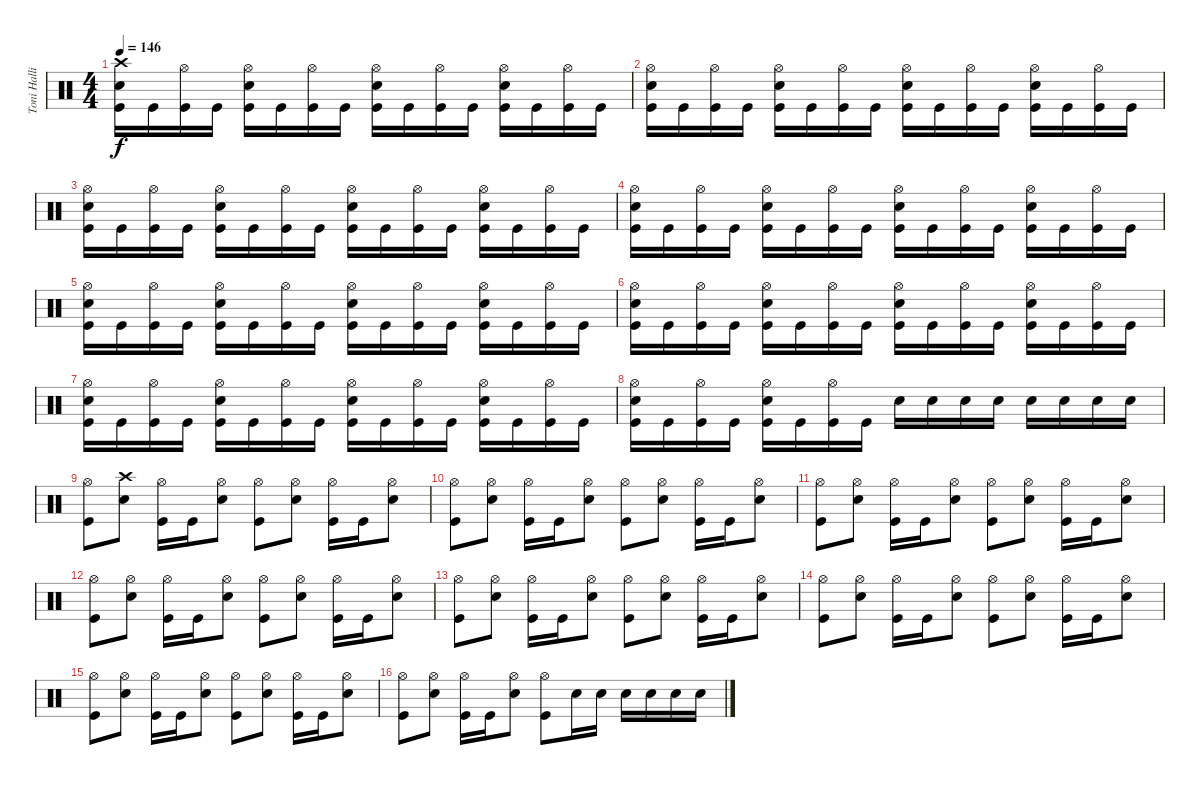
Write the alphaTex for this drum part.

\track ("Toni Hallio" "Toni Halli") {instrument percussion}
\staff {score}
\articulation defaults
\ts (4 4)
\tempo 146
\clef neutral
\ks c
("Crash high (hit)" "Snare (hit) 2" "Kick (hit)").16{dy f} "Kick (hit)".16 ("Hi-Hat (open)" "Kick (hit)").16 "Kick (hit)".16 ("Hi-Hat (open)" "Snare (hit) 2" "Kick (hit)").16 "Kick (hit)".16 ("Hi-Hat (open)" "Kick (hit)").16 "Kick (hit)".16 ("Hi-Hat (open)" "Snare (hit) 2" "Kick (hit)").16 "Kick (hit)".16 ("Hi-Hat (open)" "Kick (hit)").16 "Kick (hit)".16 ("Hi-Hat (open)" "Snare (hit) 2" "Kick (hit)").16 "Kick (hit)".16 ("Hi-Hat (open)" "Kick (hit)").16 "Kick (hit)".16 |
("Hi-Hat (open)" "Snare (hit) 2" "Kick (hit)").16 "Kick (hit)".16 ("Hi-Hat (open)" "Kick (hit)").16 "Kick (hit)".16 ("Hi-Hat (open)" "Snare (hit) 2" "Kick (hit)").16 "Kick (hit)".16 ("Hi-Hat (open)" "Kick (hit)").16 "Kick (hit)".16 ("Hi-Hat (open)" "Snare (hit) 2" "Kick (hit)").16 "Kick (hit)".16 ("Hi-Hat (open)" "Kick (hit)").16 "Kick (hit)".16 ("Hi-Hat (open)" "Snare (hit) 2" "Kick (hit)").16 "Kick (hit)".16 ("Hi-Hat (open)" "Kick (hit)").16 "Kick (hit)".16 |
("Hi-Hat (open)" "Snare (hit) 2" "Kick (hit)").16 "Kick (hit)".16 ("Hi-Hat (open)" "Kick (hit)").16 "Kick (hit)".16 ("Hi-Hat (open)" "Snare (hit) 2" "Kick (hit)").16 "Kick (hit)".16 ("Hi-Hat (open)" "Kick (hit)").16 "Kick (hit)".16 ("Hi-Hat (open)" "Snare (hit) 2" "Kick (hit)").16 "Kick (hit)".16 ("Hi-Hat (open)" "Kick (hit)").16 "Kick (hit)".16 ("Hi-Hat (open)" "Snare (hit) 2" "Kick (hit)").16 "Kick (hit)".16 ("Hi-Hat (open)" "Kick (hit)").16 "Kick (hit)".16 |
("Hi-Hat (open)" "Snare (hit) 2" "Kick (hit)").16 "Kick (hit)".16 ("Hi-Hat (open)" "Kick (hit)").16 "Kick (hit)".16 ("Hi-Hat (open)" "Snare (hit) 2" "Kick (hit)").16 "Kick (hit)".16 ("Hi-Hat (open)" "Kick (hit)").16 "Kick (hit)".16 ("Hi-Hat (open)" "Snare (hit) 2" "Kick (hit)").16 "Kick (hit)".16 ("Hi-Hat (open)" "Kick (hit)").16 "Kick (hit)".16 ("Hi-Hat (open)" "Snare (hit) 2" "Kick (hit)").16 "Kick (hit)".16 ("Hi-Hat (open)" "Kick (hit)").16 "Kick (hit)".16 |
("Hi-Hat (open)" "Snare (hit) 2" "Kick (hit)").16 "Kick (hit)".16 ("Hi-Hat (open)" "Kick (hit)").16 "Kick (hit)".16 ("Hi-Hat (open)" "Snare (hit) 2" "Kick (hit)").16 "Kick (hit)".16 ("Hi-Hat (open)" "Kick (hit)").16 "Kick (hit)".16 ("Hi-Hat (open)" "Snare (hit) 2" "Kick (hit)").16 "Kick (hit)".16 ("Hi-Hat (open)" "Kick (hit)").16 "Kick (hit)".16 ("Hi-Hat (open)" "Snare (hit) 2" "Kick (hit)").16 "Kick (hit)".16 ("Hi-Hat (open)" "Kick (hit)").16 "Kick (hit)".16 |
("Hi-Hat (open)" "Snare (hit) 2" "Kick (hit)").16 "Kick (hit)".16 ("Hi-Hat (open)" "Kick (hit)").16 "Kick (hit)".16 ("Hi-Hat (open)" "Snare (hit) 2" "Kick (hit)").16 "Kick (hit)".16 ("Hi-Hat (open)" "Kick (hit)").16 "Kick (hit)".16 ("Hi-Hat (open)" "Snare (hit) 2" "Kick (hit)").16 "Kick (hit)".16 ("Hi-Hat (open)" "Kick (hit)").16 "Kick (hit)".16 ("Hi-Hat (open)" "Snare (hit) 2" "Kick (hit)").16 "Kick (hit)".16 ("Hi-Hat (open)" "Kick (hit)").16 "Kick (hit)".16 |
("Hi-Hat (open)" "Snare (hit) 2" "Kick (hit)").16 "Kick (hit)".16 ("Hi-Hat (open)" "Kick (hit)").16 "Kick (hit)".16 ("Hi-Hat (open)" "Snare (hit) 2" "Kick (hit)").16 "Kick (hit)".16 ("Hi-Hat (open)" "Kick (hit)").16 "Kick (hit)".16 ("Hi-Hat (open)" "Snare (hit) 2" "Kick (hit)").16 "Kick (hit)".16 ("Hi-Hat (open)" "Kick (hit)").16 "Kick (hit)".16 ("Hi-Hat (open)" "Snare (hit) 2" "Kick (hit)").16 "Kick (hit)".16 ("Hi-Hat (open)" "Kick (hit)").16 "Kick (hit)".16 |
("Hi-Hat (open)" "Snare (hit) 2" "Kick (hit)").16 "Kick (hit)".16 ("Hi-Hat (open)" "Kick (hit)").16 "Kick (hit)".16 ("Hi-Hat (open)" "Snare (hit) 2" "Kick (hit)").16 "Kick (hit)".16 ("Hi-Hat (open)" "Kick (hit)").16 "Kick (hit)".16 "Snare (hit) 2".16 "Snare (hit) 2".16 "Snare (hit) 2".16 "Snare (hit) 2".16 "Snare (hit) 2".16 "Snare (hit) 2".16 "Snare (hit) 2".16 "Snare (hit) 2".16 |
("Hi-Hat (open)" "Kick (hit)").8 ("Crash high (hit)" "Snare (hit) 2").8 ("Hi-Hat (open)" "Kick (hit)").16 "Kick (hit)".16 ("Hi-Hat (open)" "Snare (hit) 2").8 ("Hi-Hat (open)" "Kick (hit)").8 ("Hi-Hat (open)" "Snare (hit) 2").8 ("Hi-Hat (open)" "Kick (hit)").16 "Kick (hit)".16 ("Hi-Hat (open)" "Snare (hit) 2").8 |
("Hi-Hat (open)" "Kick (hit)").8 ("Hi-Hat (open)" "Snare (hit) 2").8 ("Hi-Hat (open)" "Kick (hit)").16 "Kick (hit)".16 ("Hi-Hat (open)" "Snare (hit) 2").8 ("Hi-Hat (open)" "Kick (hit)").8 ("Hi-Hat (open)" "Snare (hit) 2").8 ("Hi-Hat (open)" "Kick (hit)").16 "Kick (hit)".16 ("Hi-Hat (open)" "Snare (hit) 2").8 |
("Hi-Hat (open)" "Kick (hit)").8 ("Hi-Hat (open)" "Snare (hit) 2").8 ("Hi-Hat (open)" "Kick (hit)").16 "Kick (hit)".16 ("Hi-Hat (open)" "Snare (hit) 2").8 ("Hi-Hat (open)" "Kick (hit)").8 ("Hi-Hat (open)" "Snare (hit) 2").8 ("Hi-Hat (open)" "Kick (hit)").16 "Kick (hit)".16 ("Hi-Hat (open)" "Snare (hit) 2").8 |
("Hi-Hat (open)" "Kick (hit)").8 ("Hi-Hat (open)" "Snare (hit) 2").8 ("Hi-Hat (open)" "Kick (hit)").16 "Kick (hit)".16 ("Hi-Hat (open)" "Snare (hit) 2").8 ("Hi-Hat (open)" "Kick (hit)").8 ("Hi-Hat (open)" "Snare (hit) 2").8 ("Hi-Hat (open)" "Kick (hit)").16 "Kick (hit)".16 ("Hi-Hat (open)" "Snare (hit) 2").8 |
("Hi-Hat (open)" "Kick (hit)").8 ("Hi-Hat (open)" "Snare (hit) 2").8 ("Hi-Hat (open)" "Kick (hit)").16 "Kick (hit)".16 ("Hi-Hat (open)" "Snare (hit) 2").8 ("Hi-Hat (open)" "Kick (hit)").8 ("Hi-Hat (open)" "Snare (hit) 2").8 ("Hi-Hat (open)" "Kick (hit)").16 "Kick (hit)".16 ("Hi-Hat (open)" "Snare (hit) 2").8 |
("Hi-Hat (open)" "Kick (hit)").8 ("Hi-Hat (open)" "Snare (hit) 2").8 ("Hi-Hat (open)" "Kick (hit)").16 "Kick (hit)".16 ("Hi-Hat (open)" "Snare (hit) 2").8 ("Hi-Hat (open)" "Kick (hit)").8 ("Hi-Hat (open)" "Snare (hit) 2").8 ("Hi-Hat (open)" "Kick (hit)").16 "Kick (hit)".16 ("Hi-Hat (open)" "Snare (hit) 2").8 |
("Hi-Hat (open)" "Kick (hit)").8 ("Hi-Hat (open)" "Snare (hit) 2").8 ("Hi-Hat (open)" "Kick (hit)").16 "Kick (hit)".16 ("Hi-Hat (open)" "Snare (hit) 2").8 ("Hi-Hat (open)" "Kick (hit)").8 ("Hi-Hat (open)" "Snare (hit) 2").8 ("Hi-Hat (open)" "Kick (hit)").16 "Kick (hit)".16 ("Hi-Hat (open)" "Snare (hit) 2").8 |
("Hi-Hat (open)" "Kick (hit)").8 ("Hi-Hat (open)" "Snare (hit) 2").8 ("Hi-Hat (open)" "Kick (hit)").16 "Kick (hit)".16 ("Hi-Hat (open)" "Snare (hit) 2").8 ("Hi-Hat (open)" "Kick (hit)").8 "Snare (hit) 2".16 "Snare (hit) 2".16 "Snare (hit) 2".16 "Snare (hit) 2".16 "Snare (hit) 2".16 "Snare (hit) 2".16
